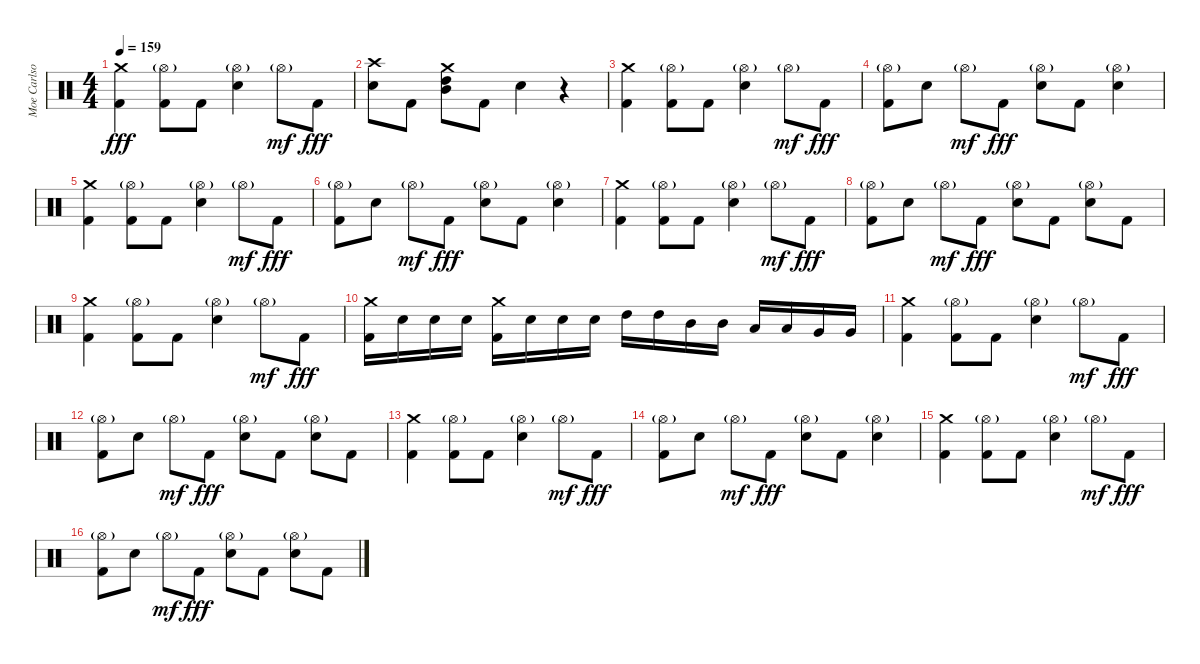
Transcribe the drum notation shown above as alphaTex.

\track ("Moe Carlson" "Moe Carlso") {instrument percussion}
\staff {score}
\articulation defaults
\ts (4 4)
\tempo 159
\clef neutral
\ks c
("Crash medium (hit)" "Kick (hit) 2").4{dy fff} ("Hi-Hat (open)"{g} "Kick (hit) 2").8 "Kick (hit) 2".8 ("Hi-Hat (open)"{g} "Electric Snare (hit)").4 "Hi-Hat (open)"{g}.8{dy mf} "Kick (hit) 2".8{dy fff} |
("Crash high (hit)" "Electric Snare (hit)").8 "Kick (hit) 2".8 ("Crash medium (hit)" "High Tom (hit)" "Mid Tom (hit)").8 "Kick (hit) 2".8 "Electric Snare (hit)".4 r.4 |
("Crash medium (hit)" "Kick (hit) 2").4 ("Hi-Hat (open)"{g} "Kick (hit) 2").8 "Kick (hit) 2".8 ("Hi-Hat (open)"{g} "Electric Snare (hit)").4 "Hi-Hat (open)"{g}.8{dy mf} "Kick (hit) 2".8{dy fff} |
("Hi-Hat (open)"{g} "Kick (hit) 2").8 "Electric Snare (hit)".8 "Hi-Hat (open)"{g}.8{dy mf} "Kick (hit) 2".8{dy fff} ("Hi-Hat (open)"{g} "Electric Snare (hit)").8 "Kick (hit) 2".8 ("Hi-Hat (open)"{g} "Electric Snare (hit)").4 |
("Crash medium (hit)" "Kick (hit) 2").4 ("Hi-Hat (open)"{g} "Kick (hit) 2").8 "Kick (hit) 2".8 ("Hi-Hat (open)"{g} "Electric Snare (hit)").4 "Hi-Hat (open)"{g}.8{dy mf} "Kick (hit) 2".8{dy fff} |
("Hi-Hat (open)"{g} "Kick (hit) 2").8 "Electric Snare (hit)".8 "Hi-Hat (open)"{g}.8{dy mf} "Kick (hit) 2".8{dy fff} ("Hi-Hat (open)"{g} "Electric Snare (hit)").8 "Kick (hit) 2".8 ("Hi-Hat (open)"{g} "Electric Snare (hit)").4 |
("Crash medium (hit)" "Kick (hit) 2").4 ("Hi-Hat (open)"{g} "Kick (hit) 2").8 "Kick (hit) 2".8 ("Hi-Hat (open)"{g} "Electric Snare (hit)").4 "Hi-Hat (open)"{g}.8{dy mf} "Kick (hit) 2".8{dy fff} |
("Hi-Hat (open)"{g} "Kick (hit) 2").8 "Electric Snare (hit)".8 "Hi-Hat (open)"{g}.8{dy mf} "Kick (hit) 2".8{dy fff} ("Hi-Hat (open)"{g} "Electric Snare (hit)").8 "Kick (hit) 2".8 ("Hi-Hat (open)"{g} "Electric Snare (hit)").8 "Kick (hit) 2".8 |
("Crash medium (hit)" "Kick (hit) 2").4 ("Hi-Hat (open)"{g} "Kick (hit) 2").8 "Kick (hit) 2".8 ("Hi-Hat (open)"{g} "Electric Snare (hit)").4 "Hi-Hat (open)"{g}.8{dy mf} "Kick (hit) 2".8{dy fff} |
("Crash medium (hit)" "Kick (hit) 2").16 "Electric Snare (hit)".16 "Electric Snare (hit)".16 "Electric Snare (hit)".16 ("Crash medium (hit)" "Kick (hit) 2").16 "Electric Snare (hit)".16 "Electric Snare (hit)".16 "Electric Snare (hit)".16 "High Tom (hit)".16 "High Tom (hit)".16 "Mid Tom (hit)".16 "Mid Tom (hit)".16 "Low Tom (hit)".16 "Low Tom (hit)".16 "Very Low Tom (hit)".16 "Very Low Tom (hit)".16 |
("Crash medium (hit)" "Kick (hit) 2").4 ("Hi-Hat (open)"{g} "Kick (hit) 2").8 "Kick (hit) 2".8 ("Hi-Hat (open)"{g} "Electric Snare (hit)").4 "Hi-Hat (open)"{g}.8{dy mf} "Kick (hit) 2".8{dy fff} |
("Hi-Hat (open)"{g} "Kick (hit) 2").8 "Electric Snare (hit)".8 "Hi-Hat (open)"{g}.8{dy mf} "Kick (hit) 2".8{dy fff} ("Hi-Hat (open)"{g} "Electric Snare (hit)").8 "Kick (hit) 2".8 ("Hi-Hat (open)"{g} "Electric Snare (hit)").8 "Kick (hit) 2".8 |
("Crash medium (hit)" "Kick (hit) 2").4 ("Hi-Hat (open)"{g} "Kick (hit) 2").8 "Kick (hit) 2".8 ("Hi-Hat (open)"{g} "Electric Snare (hit)").4 "Hi-Hat (open)"{g}.8{dy mf} "Kick (hit) 2".8{dy fff} |
("Hi-Hat (open)"{g} "Kick (hit) 2").8 "Electric Snare (hit)".8 "Hi-Hat (open)"{g}.8{dy mf} "Kick (hit) 2".8{dy fff} ("Hi-Hat (open)"{g} "Electric Snare (hit)").8 "Kick (hit) 2".8 ("Hi-Hat (open)"{g} "Electric Snare (hit)").4 |
("Crash medium (hit)" "Kick (hit) 2").4 ("Hi-Hat (open)"{g} "Kick (hit) 2").8 "Kick (hit) 2".8 ("Hi-Hat (open)"{g} "Electric Snare (hit)").4 "Hi-Hat (open)"{g}.8{dy mf} "Kick (hit) 2".8{dy fff} |
("Hi-Hat (open)"{g} "Kick (hit) 2").8 "Electric Snare (hit)".8 "Hi-Hat (open)"{g}.8{dy mf} "Kick (hit) 2".8{dy fff} ("Hi-Hat (open)"{g} "Electric Snare (hit)").8 "Kick (hit) 2".8 ("Hi-Hat (open)"{g} "Electric Snare (hit)").8 "Kick (hit) 2".8
